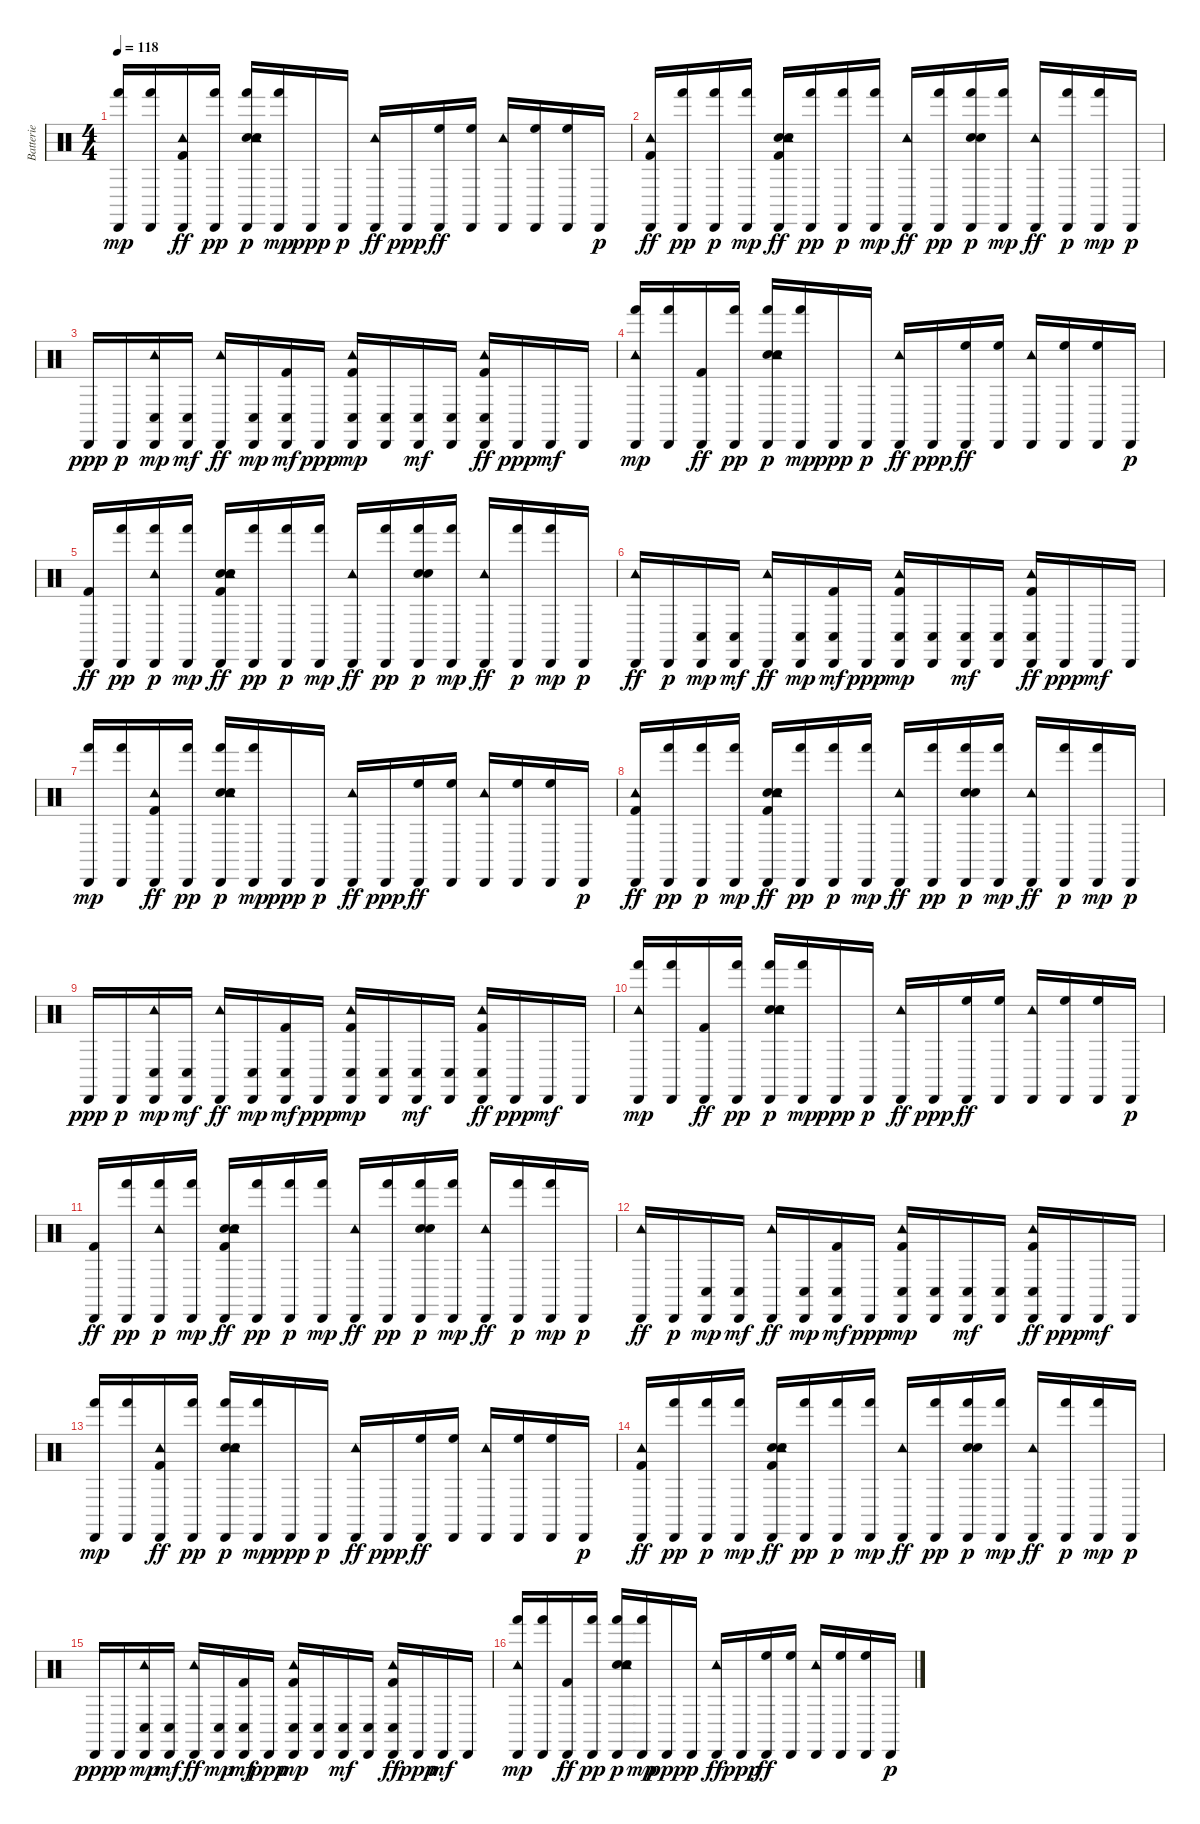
\track ("Batterie" "Batterie") {instrument percussion}
\staff {score}
\articulation defaults
\ts (4 4)
\tempo 118
\clef neutral
\ks c
("Cabasa (hit)" "Hand (hit)").16{dy mp} ("Cabasa (hit)" "Hand (hit)").16 ("Cabasa (hit)" "Tambourine (hit)" "Kick (hit) 2").16{dy ff} ("Cabasa (hit)" "Hand (hit)").16{dy pp} ("Hand Clap (hit)" "Cabasa (hit)" "Tambourine (hit)" "Snare (hit) 2" "Hand (hit)").16{dy p} ("Cabasa (hit)" "Hand (hit)").16{dy mp} "Cabasa (hit)".16{dy ppp} "Cabasa (hit)".16{dy p} ("Cabasa (hit)" "Tambourine (hit)").16{dy ff} "Cabasa (hit)".16{dy ppp} ("Cabasa (hit)" "High Floor Tom (hit)").16{dy ff} ("Cabasa (hit)" "High Floor Tom (hit)").16 ("Cabasa (hit)" "Tambourine (hit)").16 ("Cabasa (hit)" "High Floor Tom (hit)").16 ("Cabasa (hit)" "High Floor Tom (hit)").16 "Cabasa (hit)".16{dy p} |
("Cabasa (hit)" "Tambourine (hit)" "Kick (hit) 2").16{dy ff} ("Cabasa (hit)" "Hand (hit)").16{dy pp} ("Cabasa (hit)" "Hand (hit)").16{dy p} ("Cabasa (hit)" "Hand (hit)").16{dy mp} ("Hand Clap (hit)" "Cabasa (hit)" "Tambourine (hit)" "Kick (hit) 2" "Snare (hit) 2").16{dy ff} ("Cabasa (hit)" "Hand (hit)").16{dy pp} ("Cabasa (hit)" "Hand (hit)").16{dy p} ("Cabasa (hit)" "Hand (hit)").16{dy mp} ("Cabasa (hit)" "Tambourine (hit)").16{dy ff} ("Cabasa (hit)" "Hand (hit)").16{dy pp} ("Hand Clap (hit)" "Cabasa (hit)" "Snare (hit) 2" "Hand (hit)").16{dy p} ("Cabasa (hit)" "Hand (hit)").16{dy mp} ("Cabasa (hit)" "Tambourine (hit)").16{dy ff} ("Cabasa (hit)" "Hand (hit)").16{dy p} ("Cabasa (hit)" "Hand (hit)").16{dy mp} "Cabasa (hit)".16{dy p} |
"Cabasa (hit)".16{dy ppp} "Cabasa (hit)".16{dy p} ("Cabasa (hit)" "Tambourine (hit)" "Conga low (hit)").16{dy mp} ("Cabasa (hit)" "Conga low (hit)").16{dy mf} ("Cabasa (hit)" "Tambourine (hit)").16{dy ff} ("Cabasa (hit)" "Conga low (hit)").16{dy mp} ("Cabasa (hit)" "Kick (hit) 2" "Conga low (hit)").16{dy mf} "Cabasa (hit)".16{dy ppp} ("Cabasa (hit)" "Tambourine (hit)" "Kick (hit) 2" "Conga low (hit)").16{dy mp} ("Cabasa (hit)" "Conga low (hit)").16 ("Cabasa (hit)" "Conga low (hit)").16{dy mf} ("Cabasa (hit)" "Conga low (hit)").16 ("Cabasa (hit)" "Tambourine (hit)" "Kick (hit) 2" "Conga low (hit)").16{dy ff} "Cabasa (hit)".16{dy ppp} "Cabasa (hit)".16{dy mf} "Cabasa (hit)".16 |
("Cabasa (hit)" "Tambourine (hit)" "Hand (hit)").16{dy mp} ("Cabasa (hit)" "Hand (hit)").16 ("Cabasa (hit)" "Kick (hit) 2").16{dy ff} ("Cabasa (hit)" "Hand (hit)").16{dy pp} ("Hand Clap (hit)" "Cabasa (hit)" "Tambourine (hit)" "Snare (hit) 2" "Hand (hit)").16{dy p} ("Cabasa (hit)" "Hand (hit)").16{dy mp} "Cabasa (hit)".16{dy ppp} "Cabasa (hit)".16{dy p} ("Cabasa (hit)" "Tambourine (hit)").16{dy ff} "Cabasa (hit)".16{dy ppp} ("Cabasa (hit)" "High Floor Tom (hit)").16{dy ff} ("Cabasa (hit)" "High Floor Tom (hit)").16 ("Cabasa (hit)" "Tambourine (hit)").16 ("Cabasa (hit)" "High Floor Tom (hit)").16 ("Cabasa (hit)" "High Floor Tom (hit)").16 "Cabasa (hit)".16{dy p} |
("Cabasa (hit)" "Kick (hit) 2").16{dy ff} ("Cabasa (hit)" "Hand (hit)").16{dy pp} ("Cabasa (hit)" "Tambourine (hit)" "Hand (hit)").16{dy p} ("Cabasa (hit)" "Hand (hit)").16{dy mp} ("Hand Clap (hit)" "Cabasa (hit)" "Tambourine (hit)" "Kick (hit) 2" "Snare (hit) 2").16{dy ff} ("Cabasa (hit)" "Hand (hit)").16{dy pp} ("Cabasa (hit)" "Hand (hit)").16{dy p} ("Cabasa (hit)" "Hand (hit)").16{dy mp} ("Cabasa (hit)" "Tambourine (hit)").16{dy ff} ("Cabasa (hit)" "Hand (hit)").16{dy pp} ("Hand Clap (hit)" "Cabasa (hit)" "Snare (hit) 2" "Hand (hit)").16{dy p} ("Cabasa (hit)" "Hand (hit)").16{dy mp} ("Cabasa (hit)" "Tambourine (hit)").16{dy ff} ("Cabasa (hit)" "Hand (hit)").16{dy p} ("Cabasa (hit)" "Hand (hit)").16{dy mp} "Cabasa (hit)".16{dy p} |
("Cabasa (hit)" "Tambourine (hit)").16{dy ff} "Cabasa (hit)".16{dy p} ("Cabasa (hit)" "Conga low (hit)").16{dy mp} ("Cabasa (hit)" "Conga low (hit)").16{dy mf} ("Cabasa (hit)" "Tambourine (hit)").16{dy ff} ("Cabasa (hit)" "Conga low (hit)").16{dy mp} ("Cabasa (hit)" "Kick (hit) 2" "Conga low (hit)").16{dy mf} "Cabasa (hit)".16{dy ppp} ("Cabasa (hit)" "Tambourine (hit)" "Kick (hit) 2" "Conga low (hit)").16{dy mp} ("Cabasa (hit)" "Conga low (hit)").16 ("Cabasa (hit)" "Conga low (hit)").16{dy mf} ("Cabasa (hit)" "Conga low (hit)").16 ("Cabasa (hit)" "Tambourine (hit)" "Kick (hit) 2" "Conga low (hit)").16{dy ff} "Cabasa (hit)".16{dy ppp} "Cabasa (hit)".16{dy mf} "Cabasa (hit)".16 |
("Cabasa (hit)" "Hand (hit)").16{dy mp} ("Cabasa (hit)" "Hand (hit)").16 ("Cabasa (hit)" "Tambourine (hit)" "Kick (hit) 2").16{dy ff} ("Cabasa (hit)" "Hand (hit)").16{dy pp} ("Hand Clap (hit)" "Cabasa (hit)" "Tambourine (hit)" "Snare (hit) 2" "Hand (hit)").16{dy p} ("Cabasa (hit)" "Hand (hit)").16{dy mp} "Cabasa (hit)".16{dy ppp} "Cabasa (hit)".16{dy p} ("Cabasa (hit)" "Tambourine (hit)").16{dy ff} "Cabasa (hit)".16{dy ppp} ("Cabasa (hit)" "High Floor Tom (hit)").16{dy ff} ("Cabasa (hit)" "High Floor Tom (hit)").16 ("Cabasa (hit)" "Tambourine (hit)").16 ("Cabasa (hit)" "High Floor Tom (hit)").16 ("Cabasa (hit)" "High Floor Tom (hit)").16 "Cabasa (hit)".16{dy p} |
("Cabasa (hit)" "Tambourine (hit)" "Kick (hit) 2").16{dy ff} ("Cabasa (hit)" "Hand (hit)").16{dy pp} ("Cabasa (hit)" "Hand (hit)").16{dy p} ("Cabasa (hit)" "Hand (hit)").16{dy mp} ("Hand Clap (hit)" "Cabasa (hit)" "Tambourine (hit)" "Kick (hit) 2" "Snare (hit) 2").16{dy ff} ("Cabasa (hit)" "Hand (hit)").16{dy pp} ("Cabasa (hit)" "Hand (hit)").16{dy p} ("Cabasa (hit)" "Hand (hit)").16{dy mp} ("Cabasa (hit)" "Tambourine (hit)").16{dy ff} ("Cabasa (hit)" "Hand (hit)").16{dy pp} ("Hand Clap (hit)" "Cabasa (hit)" "Snare (hit) 2" "Hand (hit)").16{dy p} ("Cabasa (hit)" "Hand (hit)").16{dy mp} ("Cabasa (hit)" "Tambourine (hit)").16{dy ff} ("Cabasa (hit)" "Hand (hit)").16{dy p} ("Cabasa (hit)" "Hand (hit)").16{dy mp} "Cabasa (hit)".16{dy p} |
"Cabasa (hit)".16{dy ppp} "Cabasa (hit)".16{dy p} ("Cabasa (hit)" "Tambourine (hit)" "Conga low (hit)").16{dy mp} ("Cabasa (hit)" "Conga low (hit)").16{dy mf} ("Cabasa (hit)" "Tambourine (hit)").16{dy ff} ("Cabasa (hit)" "Conga low (hit)").16{dy mp} ("Cabasa (hit)" "Kick (hit) 2" "Conga low (hit)").16{dy mf} "Cabasa (hit)".16{dy ppp} ("Cabasa (hit)" "Tambourine (hit)" "Kick (hit) 2" "Conga low (hit)").16{dy mp} ("Cabasa (hit)" "Conga low (hit)").16 ("Cabasa (hit)" "Conga low (hit)").16{dy mf} ("Cabasa (hit)" "Conga low (hit)").16 ("Cabasa (hit)" "Tambourine (hit)" "Kick (hit) 2" "Conga low (hit)").16{dy ff} "Cabasa (hit)".16{dy ppp} "Cabasa (hit)".16{dy mf} "Cabasa (hit)".16 |
("Cabasa (hit)" "Tambourine (hit)" "Hand (hit)").16{dy mp} ("Cabasa (hit)" "Hand (hit)").16 ("Cabasa (hit)" "Kick (hit) 2").16{dy ff} ("Cabasa (hit)" "Hand (hit)").16{dy pp} ("Hand Clap (hit)" "Cabasa (hit)" "Tambourine (hit)" "Snare (hit) 2" "Hand (hit)").16{dy p} ("Cabasa (hit)" "Hand (hit)").16{dy mp} "Cabasa (hit)".16{dy ppp} "Cabasa (hit)".16{dy p} ("Cabasa (hit)" "Tambourine (hit)").16{dy ff} "Cabasa (hit)".16{dy ppp} ("Cabasa (hit)" "High Floor Tom (hit)").16{dy ff} ("Cabasa (hit)" "High Floor Tom (hit)").16 ("Cabasa (hit)" "Tambourine (hit)").16 ("Cabasa (hit)" "High Floor Tom (hit)").16 ("Cabasa (hit)" "High Floor Tom (hit)").16 "Cabasa (hit)".16{dy p} |
("Cabasa (hit)" "Kick (hit) 2").16{dy ff} ("Cabasa (hit)" "Hand (hit)").16{dy pp} ("Cabasa (hit)" "Tambourine (hit)" "Hand (hit)").16{dy p} ("Cabasa (hit)" "Hand (hit)").16{dy mp} ("Hand Clap (hit)" "Cabasa (hit)" "Tambourine (hit)" "Kick (hit) 2" "Snare (hit) 2").16{dy ff} ("Cabasa (hit)" "Hand (hit)").16{dy pp} ("Cabasa (hit)" "Hand (hit)").16{dy p} ("Cabasa (hit)" "Hand (hit)").16{dy mp} ("Cabasa (hit)" "Tambourine (hit)").16{dy ff} ("Cabasa (hit)" "Hand (hit)").16{dy pp} ("Hand Clap (hit)" "Cabasa (hit)" "Snare (hit) 2" "Hand (hit)").16{dy p} ("Cabasa (hit)" "Hand (hit)").16{dy mp} ("Cabasa (hit)" "Tambourine (hit)").16{dy ff} ("Cabasa (hit)" "Hand (hit)").16{dy p} ("Cabasa (hit)" "Hand (hit)").16{dy mp} "Cabasa (hit)".16{dy p} |
("Cabasa (hit)" "Tambourine (hit)").16{dy ff} "Cabasa (hit)".16{dy p} ("Cabasa (hit)" "Conga low (hit)").16{dy mp} ("Cabasa (hit)" "Conga low (hit)").16{dy mf} ("Cabasa (hit)" "Tambourine (hit)").16{dy ff} ("Cabasa (hit)" "Conga low (hit)").16{dy mp} ("Cabasa (hit)" "Kick (hit) 2" "Conga low (hit)").16{dy mf} "Cabasa (hit)".16{dy ppp} ("Cabasa (hit)" "Tambourine (hit)" "Kick (hit) 2" "Conga low (hit)").16{dy mp} ("Cabasa (hit)" "Conga low (hit)").16 ("Cabasa (hit)" "Conga low (hit)").16{dy mf} ("Cabasa (hit)" "Conga low (hit)").16 ("Cabasa (hit)" "Tambourine (hit)" "Kick (hit) 2" "Conga low (hit)").16{dy ff} "Cabasa (hit)".16{dy ppp} "Cabasa (hit)".16{dy mf} "Cabasa (hit)".16 |
("Cabasa (hit)" "Hand (hit)").16{dy mp} ("Cabasa (hit)" "Hand (hit)").16 ("Cabasa (hit)" "Tambourine (hit)" "Kick (hit) 2").16{dy ff} ("Cabasa (hit)" "Hand (hit)").16{dy pp} ("Hand Clap (hit)" "Cabasa (hit)" "Tambourine (hit)" "Snare (hit) 2" "Hand (hit)").16{dy p} ("Cabasa (hit)" "Hand (hit)").16{dy mp} "Cabasa (hit)".16{dy ppp} "Cabasa (hit)".16{dy p} ("Cabasa (hit)" "Tambourine (hit)").16{dy ff} "Cabasa (hit)".16{dy ppp} ("Cabasa (hit)" "High Floor Tom (hit)").16{dy ff} ("Cabasa (hit)" "High Floor Tom (hit)").16 ("Cabasa (hit)" "Tambourine (hit)").16 ("Cabasa (hit)" "High Floor Tom (hit)").16 ("Cabasa (hit)" "High Floor Tom (hit)").16 "Cabasa (hit)".16{dy p} |
("Cabasa (hit)" "Tambourine (hit)" "Kick (hit) 2").16{dy ff} ("Cabasa (hit)" "Hand (hit)").16{dy pp} ("Cabasa (hit)" "Hand (hit)").16{dy p} ("Cabasa (hit)" "Hand (hit)").16{dy mp} ("Hand Clap (hit)" "Cabasa (hit)" "Tambourine (hit)" "Kick (hit) 2" "Snare (hit) 2").16{dy ff} ("Cabasa (hit)" "Hand (hit)").16{dy pp} ("Cabasa (hit)" "Hand (hit)").16{dy p} ("Cabasa (hit)" "Hand (hit)").16{dy mp} ("Cabasa (hit)" "Tambourine (hit)").16{dy ff} ("Cabasa (hit)" "Hand (hit)").16{dy pp} ("Hand Clap (hit)" "Cabasa (hit)" "Snare (hit) 2" "Hand (hit)").16{dy p} ("Cabasa (hit)" "Hand (hit)").16{dy mp} ("Cabasa (hit)" "Tambourine (hit)").16{dy ff} ("Cabasa (hit)" "Hand (hit)").16{dy p} ("Cabasa (hit)" "Hand (hit)").16{dy mp} "Cabasa (hit)".16{dy p} |
"Cabasa (hit)".16{dy ppp} "Cabasa (hit)".16{dy p} ("Cabasa (hit)" "Tambourine (hit)" "Conga low (hit)").16{dy mp} ("Cabasa (hit)" "Conga low (hit)").16{dy mf} ("Cabasa (hit)" "Tambourine (hit)").16{dy ff} ("Cabasa (hit)" "Conga low (hit)").16{dy mp} ("Cabasa (hit)" "Kick (hit) 2" "Conga low (hit)").16{dy mf} "Cabasa (hit)".16{dy ppp} ("Cabasa (hit)" "Tambourine (hit)" "Kick (hit) 2" "Conga low (hit)").16{dy mp} ("Cabasa (hit)" "Conga low (hit)").16 ("Cabasa (hit)" "Conga low (hit)").16{dy mf} ("Cabasa (hit)" "Conga low (hit)").16 ("Cabasa (hit)" "Tambourine (hit)" "Kick (hit) 2" "Conga low (hit)").16{dy ff} "Cabasa (hit)".16{dy ppp} "Cabasa (hit)".16{dy mf} "Cabasa (hit)".16 |
("Cabasa (hit)" "Tambourine (hit)" "Hand (hit)").16{dy mp} ("Cabasa (hit)" "Hand (hit)").16 ("Cabasa (hit)" "Kick (hit) 2").16{dy ff} ("Cabasa (hit)" "Hand (hit)").16{dy pp} ("Hand Clap (hit)" "Cabasa (hit)" "Tambourine (hit)" "Snare (hit) 2" "Hand (hit)").16{dy p} ("Cabasa (hit)" "Hand (hit)").16{dy mp} "Cabasa (hit)".16{dy ppp} "Cabasa (hit)".16{dy p} ("Cabasa (hit)" "Tambourine (hit)").16{dy ff} "Cabasa (hit)".16{dy ppp} ("Cabasa (hit)" "High Floor Tom (hit)").16{dy ff} ("Cabasa (hit)" "High Floor Tom (hit)").16 ("Cabasa (hit)" "Tambourine (hit)").16 ("Cabasa (hit)" "High Floor Tom (hit)").16 ("Cabasa (hit)" "High Floor Tom (hit)").16 "Cabasa (hit)".16{dy p}
